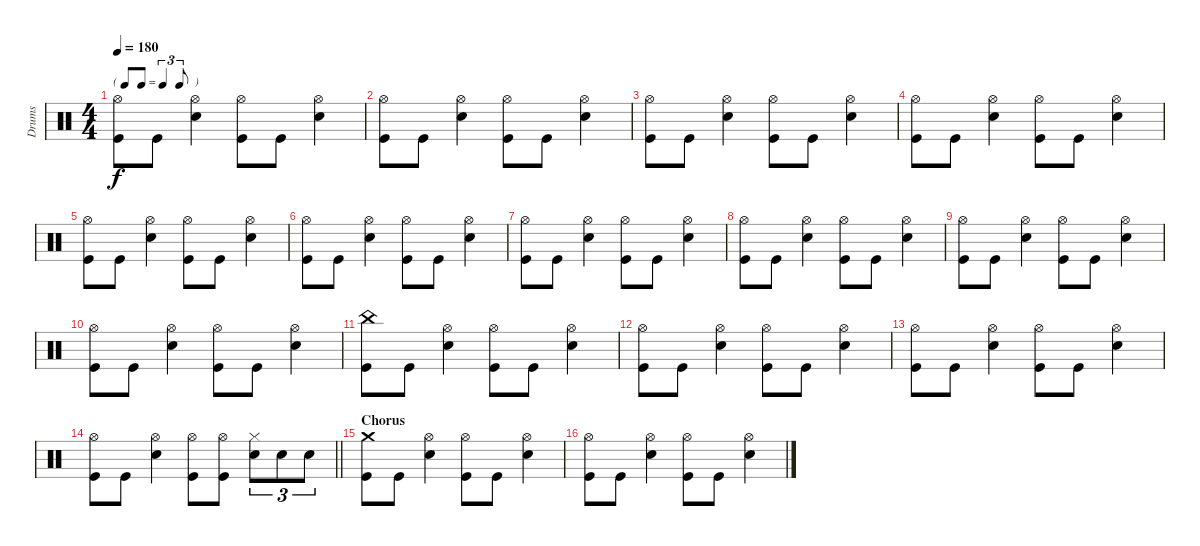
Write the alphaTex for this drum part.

\track ("Drums" "Drums") {instrument percussion}
\staff {score}
\articulation defaults
\ts (4 4)
\tf triplet8th
\tempo 180
\clef neutral
\ks c
("Hi-Hat (open)" "Kick (hit)").8{dy f} "Kick (hit)".8 ("Hi-Hat (open)" "Electric Snare (hit)").4 ("Hi-Hat (open)" "Kick (hit)").8 "Kick (hit)".8 ("Hi-Hat (open)" "Electric Snare (hit)").4 |
("Hi-Hat (open)" "Kick (hit)").8 "Kick (hit)".8 ("Hi-Hat (open)" "Electric Snare (hit)").4 ("Hi-Hat (open)" "Kick (hit)").8 "Kick (hit)".8 ("Hi-Hat (open)" "Electric Snare (hit)").4 |
("Hi-Hat (open)" "Kick (hit)").8 "Kick (hit)".8 ("Hi-Hat (open)" "Electric Snare (hit)").4 ("Hi-Hat (open)" "Kick (hit)").8 "Kick (hit)".8 ("Hi-Hat (open)" "Electric Snare (hit)").4 |
("Hi-Hat (open)" "Kick (hit)").8 "Kick (hit)".8 ("Hi-Hat (open)" "Electric Snare (hit)").4 ("Hi-Hat (open)" "Kick (hit)").8 "Kick (hit)".8 ("Hi-Hat (open)" "Electric Snare (hit)").4 |
("Hi-Hat (open)" "Kick (hit)").8 "Kick (hit)".8 ("Hi-Hat (open)" "Electric Snare (hit)").4 ("Hi-Hat (open)" "Kick (hit)").8 "Kick (hit)".8 ("Hi-Hat (open)" "Electric Snare (hit)").4 |
("Hi-Hat (open)" "Kick (hit)").8 "Kick (hit)".8 ("Hi-Hat (open)" "Electric Snare (hit)").4 ("Hi-Hat (open)" "Kick (hit)").8 "Kick (hit)".8 ("Hi-Hat (open)" "Electric Snare (hit)").4 |
("Hi-Hat (open)" "Kick (hit)").8 "Kick (hit)".8 ("Hi-Hat (open)" "Electric Snare (hit)").4 ("Hi-Hat (open)" "Kick (hit)").8 "Kick (hit)".8 ("Hi-Hat (open)" "Electric Snare (hit)").4 |
("Hi-Hat (open)" "Kick (hit)").8 "Kick (hit)".8 ("Hi-Hat (open)" "Electric Snare (hit)").4 ("Hi-Hat (open)" "Kick (hit)").8 "Kick (hit)".8 ("Hi-Hat (open)" "Electric Snare (hit)").4 |
("Hi-Hat (open)" "Kick (hit)").8 "Kick (hit)".8 ("Hi-Hat (open)" "Electric Snare (hit)").4 ("Hi-Hat (open)" "Kick (hit)").8 "Kick (hit)".8 ("Hi-Hat (open)" "Electric Snare (hit)").4 |
("Hi-Hat (open)" "Kick (hit)").8 "Kick (hit)".8 ("Hi-Hat (open)" "Electric Snare (hit)").4 ("Hi-Hat (open)" "Kick (hit)").8 "Kick (hit)".8 ("Hi-Hat (open)" "Electric Snare (hit)").4 |
("China (hit)" "Kick (hit)").8 "Kick (hit)".8 ("Hi-Hat (open)" "Electric Snare (hit)").4 ("Hi-Hat (open)" "Kick (hit)").8 "Kick (hit)".8 ("Hi-Hat (open)" "Electric Snare (hit)").4 |
("Hi-Hat (open)" "Kick (hit)").8 "Kick (hit)".8 ("Hi-Hat (open)" "Electric Snare (hit)").4 ("Hi-Hat (open)" "Kick (hit)").8 "Kick (hit)".8 ("Hi-Hat (open)" "Electric Snare (hit)").4 |
("Hi-Hat (open)" "Kick (hit)").8 "Kick (hit)".8 ("Hi-Hat (open)" "Electric Snare (hit)").4 ("Hi-Hat (open)" "Kick (hit)").8 "Kick (hit)".8 ("Hi-Hat (open)" "Electric Snare (hit)").4 |
\barLineRight lightlight
("Hi-Hat (open)" "Kick (hit)").8 "Kick (hit)".8 ("Hi-Hat (open)" "Electric Snare (hit)").4 ("Hi-Hat (open)" "Kick (hit)").8 ("Hi-Hat (open)" "Kick (hit)").8 ("Hi-Hat (closed)" "Electric Snare (hit)").8{tu (3 2)} "Electric Snare (hit)".8{tu (3 2)} "Electric Snare (hit)".8{tu (3 2)} |
\section ("" "Chorus")
("Crash medium (hit)" "Kick (hit)").8 "Kick (hit)".8 ("Hi-Hat (open)" "Electric Snare (hit)").4 ("Hi-Hat (open)" "Kick (hit)").8 "Kick (hit)".8 ("Hi-Hat (open)" "Electric Snare (hit)").4 |
("Hi-Hat (open)" "Kick (hit)").8 "Kick (hit)".8 ("Hi-Hat (open)" "Electric Snare (hit)").4 ("Hi-Hat (open)" "Kick (hit)").8 "Kick (hit)".8 ("Hi-Hat (open)" "Electric Snare (hit)").4
